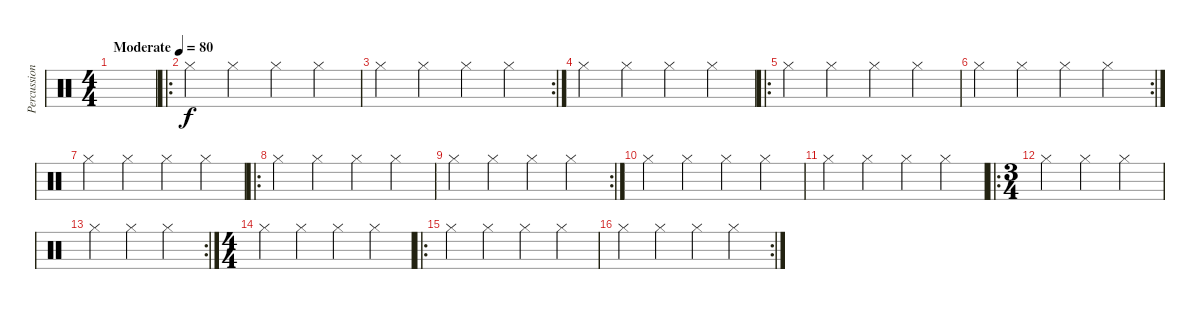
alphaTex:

\track ("Percussion" "Percussion") {instrument percussion}
\staff {score}
\articulation defaults
\ts (4 4)
\tempo (80 "Moderate")
\clef neutral
\ks c
|
\ro "Hi-Hat (closed)".4 "Hi-Hat (closed)".4 "Hi-Hat (closed)".4 "Hi-Hat (closed)".4
|
\rc 2 "Hi-Hat (closed)".4 "Hi-Hat (closed)".4 "Hi-Hat (closed)".4 "Hi-Hat (closed)".4
|
"Hi-Hat (closed)".4 "Hi-Hat (closed)".4 "Hi-Hat (closed)".4 "Hi-Hat (closed)".4 |
\ro "Hi-Hat (closed)".4 "Hi-Hat (closed)".4 "Hi-Hat (closed)".4 "Hi-Hat (closed)".4
|
\rc 2 "Hi-Hat (closed)".4 "Hi-Hat (closed)".4 "Hi-Hat (closed)".4 "Hi-Hat (closed)".4
|
"Hi-Hat (closed)".4 "Hi-Hat (closed)".4 "Hi-Hat (closed)".4 "Hi-Hat (closed)".4 |
\ro "Hi-Hat (closed)".4 "Hi-Hat (closed)".4 "Hi-Hat (closed)".4 "Hi-Hat (closed)".4
|
\rc 2 "Hi-Hat (closed)".4 "Hi-Hat (closed)".4 "Hi-Hat (closed)".4 "Hi-Hat (closed)".4
|
"Hi-Hat (closed)".4 "Hi-Hat (closed)".4 "Hi-Hat (closed)".4 "Hi-Hat (closed)".4 |
"Hi-Hat (closed)".4 "Hi-Hat (closed)".4 "Hi-Hat (closed)".4 "Hi-Hat (closed)".4 |
\ro
\ts (3 4)
"Hi-Hat (closed)".4 "Hi-Hat (closed)".4 "Hi-Hat (closed)".4 |
\rc 2 "Hi-Hat (closed)".4 "Hi-Hat (closed)".4 "Hi-Hat (closed)".4
|
\ts (4 4)
"Hi-Hat (closed)".4 "Hi-Hat (closed)".4 "Hi-Hat (closed)".4 "Hi-Hat (closed)".4 |
\ro "Hi-Hat (closed)".4 "Hi-Hat (closed)".4 "Hi-Hat (closed)".4 "Hi-Hat (closed)".4
|
\rc 2 "Hi-Hat (closed)".4 "Hi-Hat (closed)".4 "Hi-Hat (closed)".4 "Hi-Hat (closed)".4
